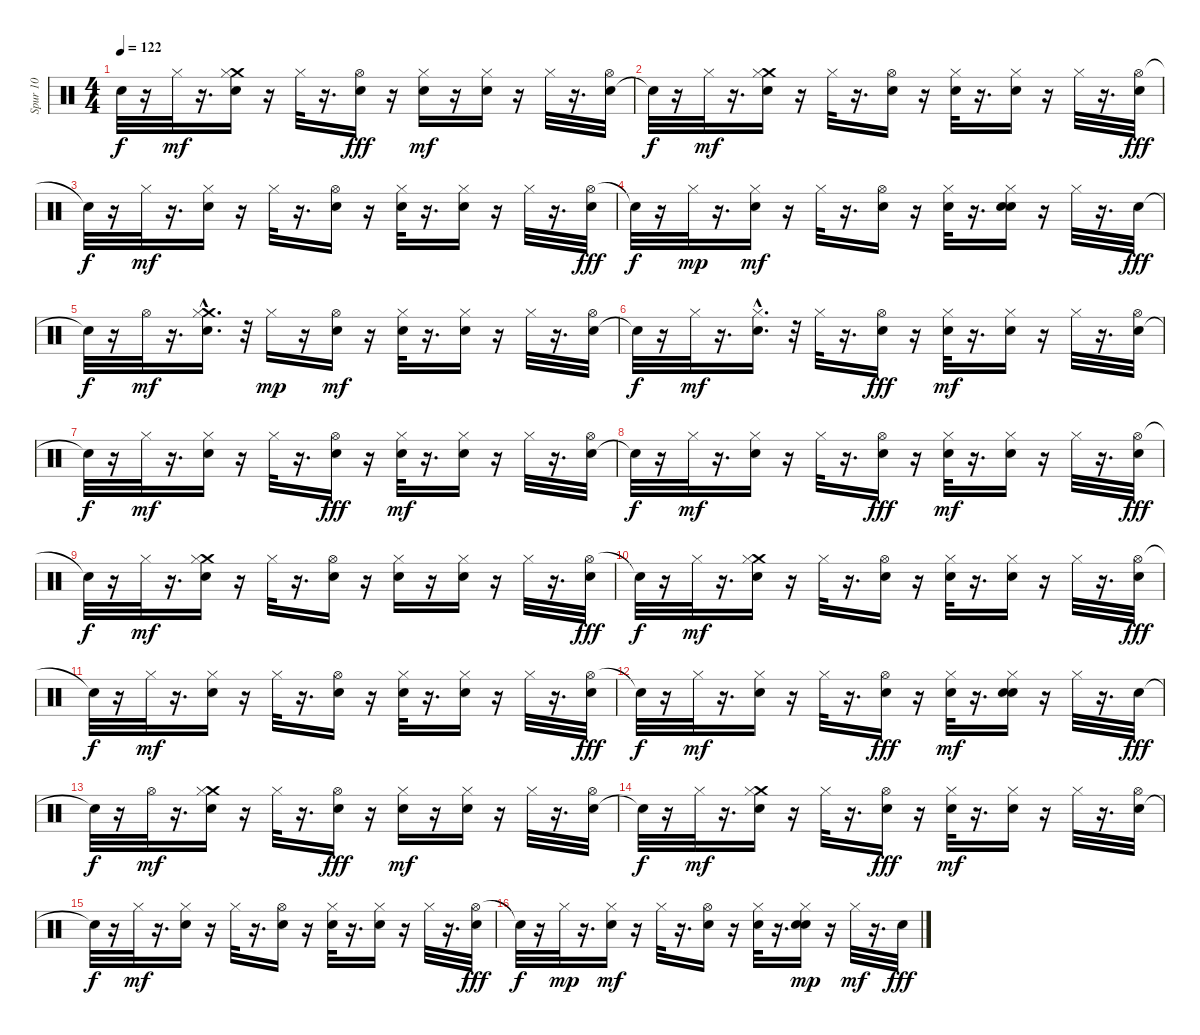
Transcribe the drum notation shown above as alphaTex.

\track ("Spur 10" "Spur 10") {instrument percussion}
\staff {score}
\articulation defaults
\ts (4 4)
\tempo 122
\clef neutral
\ks c "Snare (hit)"{t}.32{dy f}
r.16 "Hi-Hat (closed)".32{dy mf} r.16{d} ("Crash medium (hit)" "Snare (hit)" "Hi-Hat (closed)").16 r.16 "Hi-Hat (closed)".32 r.16{d} ("Hi-Hat (open)" "Snare (hit) 2").16{dy fff} r.16 ("Snare (hit)" "Hi-Hat (closed)").16{dy mf} r.16 ("Snare (hit)" "Hi-Hat (closed)").16 r.16 "Hi-Hat (closed)".32 r.16{d} ("Snare (hit) 2" "Hi-Hat (open)").32 |
"Snare (hit)"{t}.32{dy f} r.16 "Hi-Hat (closed)".32{dy mf} r.16{d} ("Crash medium (hit)" "Snare (hit)" "Hi-Hat (closed)").16 r.16 "Hi-Hat (closed)".32 r.16{d} ("Snare (hit) 2" "Hi-Hat (open)").16 r.16 ("Snare (hit)" "Hi-Hat (closed)").32 r.16{d} ("Snare (hit)" "Hi-Hat (closed)").16 r.16 "Hi-Hat (closed)".32 r.16{d} ("Hi-Hat (open)" "Snare (hit) 2").32{dy fff} |
"Snare (hit)"{t}.32{dy f} r.16 "Hi-Hat (closed)".32{dy mf} r.16{d} ("Snare (hit)" "Hi-Hat (closed)").16 r.16 "Hi-Hat (closed)".32 r.16{d} ("Snare (hit) 2" "Hi-Hat (open)").16 r.16 ("Snare (hit)" "Hi-Hat (closed)").32 r.16{d} ("Snare (hit)" "Hi-Hat (closed)").16 r.16 "Hi-Hat (closed)".32 r.16{d} ("Hi-Hat (open)" "Snare (hit) 2").32{dy fff} |
"Snare (hit)"{t}.32{dy f} r.16 "Hi-Hat (closed)".32{dy mp} r.16{d} ("Snare (hit)" "Hi-Hat (closed)").16{dy mf} r.16 "Hi-Hat (closed)".32 r.16{d} ("Snare (hit) 2" "Hi-Hat (open)").16 r.16 ("Snare (hit)" "Hi-Hat (closed)").32 r.16{d} ("Snare (hit)" "Snare (hit) 2" "Hi-Hat (closed)").16 r.16 "Hi-Hat (closed)".32 r.16{d} "Snare (hit) 2".32{dy fff} |
"Snare (hit)"{t}.32{dy f} r.16 "Hi-Hat (open)".32{dy mf} r.16{d} ("Snare (hit)"{hac} "Crash medium (hit)" "Hi-Hat (closed)").16{d} r.32 "Hi-Hat (closed)".16{dy mp} r.16 ("Snare (hit) 2" "Hi-Hat (open)").16{dy mf} r.16 ("Snare (hit)" "Hi-Hat (closed)").32 r.16{d} ("Snare (hit)" "Hi-Hat (closed)").16 r.16 "Hi-Hat (closed)".32 r.16{d} ("Snare (hit) 2" "Hi-Hat (open)").32 |
"Snare (hit)"{t}.32{dy f} r.16 "Hi-Hat (closed)".32{dy mf} r.16{d} ("Snare (hit)"{hac} "Hi-Hat (closed)").16{d} r.32 "Hi-Hat (closed)".32 r.16{d} ("Hi-Hat (open)" "Snare (hit) 2").16{dy fff} r.16 ("Snare (hit)" "Hi-Hat (closed)").32{dy mf} r.16{d} ("Snare (hit)" "Hi-Hat (closed)").16 r.16 "Hi-Hat (closed)".32 r.16{d} ("Snare (hit) 2" "Hi-Hat (open)").32 |
"Snare (hit)"{t}.32{dy f} r.16 "Hi-Hat (closed)".32{dy mf} r.16{d} ("Snare (hit)" "Hi-Hat (closed)").16 r.16 "Hi-Hat (closed)".32 r.16{d} ("Hi-Hat (open)" "Snare (hit) 2").16{dy fff} r.16 ("Snare (hit)" "Hi-Hat (closed)").32{dy mf} r.16{d} ("Snare (hit)" "Hi-Hat (closed)").16 r.16 "Hi-Hat (closed)".32 r.16{d} ("Snare (hit) 2" "Hi-Hat (open)").32 |
"Snare (hit)"{t}.32{dy f} r.16 "Hi-Hat (closed)".32{dy mf} r.16{d} ("Snare (hit)" "Hi-Hat (closed)").16 r.16 "Hi-Hat (closed)".32 r.16{d} ("Hi-Hat (open)" "Snare (hit) 2").16{dy fff} r.16 ("Snare (hit)" "Hi-Hat (closed)").32{dy mf} r.16{d} ("Snare (hit)" "Hi-Hat (closed)").16 r.16 "Hi-Hat (closed)".32 r.16{d} ("Hi-Hat (open)" "Snare (hit) 2").32{dy fff} |
"Snare (hit)"{t}.32{dy f} r.16 "Hi-Hat (closed)".32{dy mf} r.16{d} ("Crash medium (hit)" "Snare (hit)" "Hi-Hat (closed)").16 r.16 "Hi-Hat (closed)".32 r.16{d} ("Snare (hit) 2" "Hi-Hat (open)").16 r.16 ("Snare (hit)" "Hi-Hat (closed)").16 r.16 ("Snare (hit)" "Hi-Hat (closed)").16 r.16 "Hi-Hat (closed)".32 r.16{d} ("Hi-Hat (open)" "Snare (hit) 2").32{dy fff} |
"Snare (hit)"{t}.32{dy f} r.16 "Hi-Hat (closed)".32{dy mf} r.16{d} ("Crash medium (hit)" "Snare (hit)" "Hi-Hat (closed)").16 r.16 "Hi-Hat (closed)".32 r.16{d} ("Snare (hit) 2" "Hi-Hat (open)").16 r.16 ("Snare (hit)" "Hi-Hat (closed)").32 r.16{d} ("Snare (hit)" "Hi-Hat (closed)").16 r.16 "Hi-Hat (closed)".32 r.16{d} ("Hi-Hat (open)" "Snare (hit) 2").32{dy fff} |
"Snare (hit)"{t}.32{dy f} r.16 "Hi-Hat (closed)".32{dy mf} r.16{d} ("Snare (hit)" "Hi-Hat (closed)").16 r.16 "Hi-Hat (closed)".32 r.16{d} ("Snare (hit) 2" "Hi-Hat (open)").16 r.16 ("Snare (hit)" "Hi-Hat (closed)").32 r.16{d} ("Snare (hit)" "Hi-Hat (closed)").16 r.16 "Hi-Hat (closed)".32 r.16{d} ("Hi-Hat (open)" "Snare (hit) 2").32{dy fff} |
"Snare (hit)"{t}.32{dy f} r.16 "Hi-Hat (closed)".32{dy mf} r.16{d} ("Snare (hit)" "Hi-Hat (closed)").16 r.16 "Hi-Hat (closed)".32 r.16{d} ("Hi-Hat (open)" "Snare (hit) 2").16{dy fff} r.16 ("Snare (hit)" "Hi-Hat (closed)").32{dy mf} r.16{d} ("Snare (hit)" "Snare (hit) 2" "Hi-Hat (closed)").16 r.16 "Hi-Hat (closed)".32 r.16{d} "Snare (hit) 2".32{dy fff} |
"Snare (hit)"{t}.32{dy f} r.16 "Hi-Hat (open)".32{dy mf} r.16{d} ("Snare (hit)" "Crash medium (hit)" "Hi-Hat (closed)").16 r.16 "Hi-Hat (closed)".32 r.16{d} ("Hi-Hat (open)" "Snare (hit) 2").16{dy fff} r.16 ("Snare (hit)" "Hi-Hat (closed)").16{dy mf} r.16 ("Snare (hit)" "Hi-Hat (closed)").16 r.16 "Hi-Hat (closed)".32 r.16{d} ("Snare (hit) 2" "Hi-Hat (open)").32 |
"Snare (hit)"{t}.32{dy f} r.16 "Hi-Hat (closed)".32{dy mf} r.16{d} ("Crash medium (hit)" "Snare (hit)" "Hi-Hat (closed)").16 r.16 "Hi-Hat (closed)".32 r.16{d} ("Hi-Hat (open)" "Snare (hit) 2").16{dy fff} r.16 ("Snare (hit)" "Hi-Hat (closed)").32{dy mf} r.16{d} ("Snare (hit)" "Hi-Hat (closed)").16 r.16 "Hi-Hat (closed)".32 r.16{d} ("Snare (hit) 2" "Hi-Hat (open)").32 |
"Snare (hit)"{t}.32{dy f} r.16 "Hi-Hat (closed)".32{dy mf} r.16{d} ("Snare (hit)" "Hi-Hat (closed)").16 r.16 "Hi-Hat (closed)".32 r.16{d} ("Snare (hit) 2" "Hi-Hat (open)").16 r.16 ("Snare (hit)" "Hi-Hat (closed)").32 r.16{d} ("Snare (hit)" "Hi-Hat (closed)").16 r.16 "Hi-Hat (closed)".32 r.16{d} ("Hi-Hat (open)" "Snare (hit) 2").32{dy fff} |
"Snare (hit)"{t}.32{dy f} r.16 "Hi-Hat (closed)".32{dy mp} r.16{d} ("Snare (hit)" "Hi-Hat (closed)").16{dy mf} r.16 "Hi-Hat (closed)".32 r.16{d} ("Snare (hit) 2" "Hi-Hat (open)").16 r.16 ("Snare (hit)" "Hi-Hat (closed)").32 r.16{d} ("Snare (hit) 2" "Snare (hit)" "Hi-Hat (closed)").16{dy mp} r.16 "Hi-Hat (closed)".32{dy mf} r.16{d} "Snare (hit) 2".32{dy fff}
